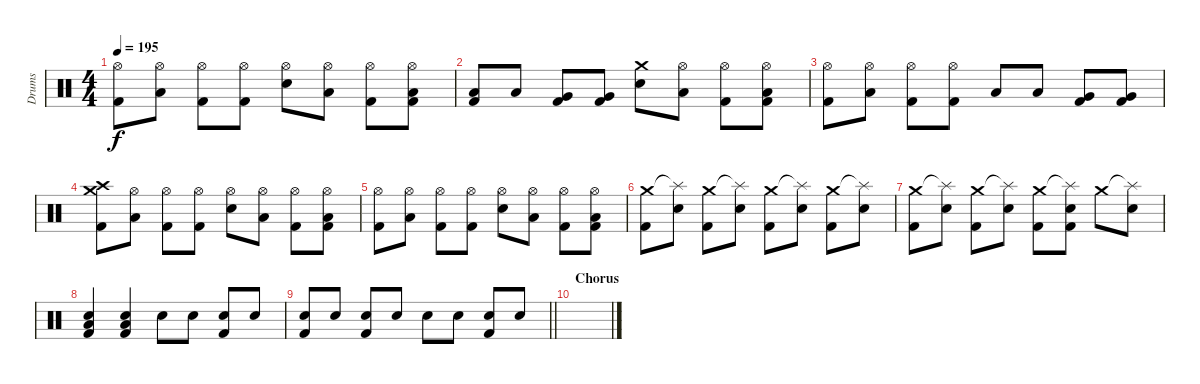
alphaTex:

\track ("Drums" "Drums") {instrument percussion}
\staff {score}
\articulation defaults
\ts (4 4)
\tempo 195
\clef neutral
\ks c
("Hi-Hat (open)" "Kick (hit) 2").8{dy f} ("Hi-Hat (open)" "Low Tom (hit)").8 ("Hi-Hat (open)" "Kick (hit) 2").8 ("Hi-Hat (open)" "Kick (hit) 2").8 ("Hi-Hat (open)" "Snare (hit) 2").8 ("Hi-Hat (open)" "Low Tom (hit)").8 ("Hi-Hat (open)" "Kick (hit) 2").8 ("Hi-Hat (open)" "Low Tom (hit)" "Kick (hit) 2").8 |
("Low Tom (hit)" "Kick (hit) 2").8 "Low Tom (hit)".8 ("Very Low Tom (hit)" "Kick (hit) 2").8 ("Very Low Tom (hit)" "Kick (hit) 2").8 ("Crash medium (hit)" "Snare (hit) 2").8 ("Hi-Hat (open)" "Low Tom (hit)").8 ("Hi-Hat (open)" "Kick (hit) 2").8 ("Hi-Hat (open)" "Low Tom (hit)" "Kick (hit) 2").8 |
("Hi-Hat (open)" "Kick (hit) 2").8 ("Hi-Hat (open)" "Low Tom (hit)").8 ("Hi-Hat (open)" "Kick (hit) 2").8 ("Hi-Hat (open)" "Kick (hit) 2").8 "Low Tom (hit)".8 "Low Tom (hit)".8 ("Very Low Tom (hit)" "Kick (hit) 2").8 ("Very Low Tom (hit)" "Kick (hit) 2").8 |
("Crash high (hit)" "Crash medium (hit)" "Kick (hit) 2").8 ("Hi-Hat (open)" "Low Tom (hit)").8 ("Hi-Hat (open)" "Kick (hit) 2").8 ("Hi-Hat (open)" "Kick (hit) 2").8 ("Hi-Hat (open)" "Snare (hit) 2").8 ("Hi-Hat (open)" "Low Tom (hit)").8 ("Hi-Hat (open)" "Kick (hit) 2").8 ("Hi-Hat (open)" "Low Tom (hit)" "Kick (hit) 2").8 |
("Hi-Hat (open)" "Kick (hit) 2").8 ("Hi-Hat (open)" "Low Tom (hit)").8 ("Hi-Hat (open)" "Kick (hit) 2").8 ("Hi-Hat (open)" "Kick (hit) 2").8 ("Hi-Hat (open)" "Snare (hit) 2").8 ("Hi-Hat (open)" "Low Tom (hit)").8 ("Hi-Hat (open)" "Kick (hit) 2").8 ("Hi-Hat (open)" "Low Tom (hit)" "Kick (hit) 2").8 |
("Crash medium (hit)" "Kick (hit) 2").8 ("Splash (hit)"{t} "Snare (hit) 2").8 ("Crash medium (hit)" "Kick (hit) 2").8 ("Splash (hit)"{t} "Snare (hit) 2").8 ("Crash medium (hit)" "Kick (hit) 2").8 ("Splash (hit)"{t} "Snare (hit) 2").8 ("Crash medium (hit)" "Kick (hit) 2").8 ("Splash (hit)"{t} "Snare (hit) 2").8 |
("Crash medium (hit)" "Kick (hit) 2").8 ("Splash (hit)"{t} "Snare (hit) 2").8 ("Crash medium (hit)" "Kick (hit) 2").8 ("Splash (hit)"{t} "Snare (hit) 2").8 ("Crash medium (hit)" "Kick (hit) 2").8 ("Splash (hit)"{t} "Snare (hit) 2" "Kick (hit) 2").8 "Crash medium (hit)".8 ("Splash (hit)"{t} "Snare (hit) 2").8 |
("Snare (hit) 2" "Low Tom (hit)" "Kick (hit) 2").4 ("Snare (hit) 2" "Low Tom (hit)" "Kick (hit) 2").4 "Snare (hit) 2".8 "Snare (hit) 2".8 ("Snare (hit) 2" "Kick (hit) 2").8 "Snare (hit) 2".8 |
\barLineRight lightlight
("Snare (hit) 2" "Kick (hit) 2").8 "Snare (hit) 2".8 ("Snare (hit) 2" "Kick (hit) 2").8 "Snare (hit) 2".8 "Snare (hit) 2".8 "Snare (hit) 2".8 ("Snare (hit) 2" "Kick (hit) 2").8 "Snare (hit) 2".8 |
\section ("" "Chorus")
